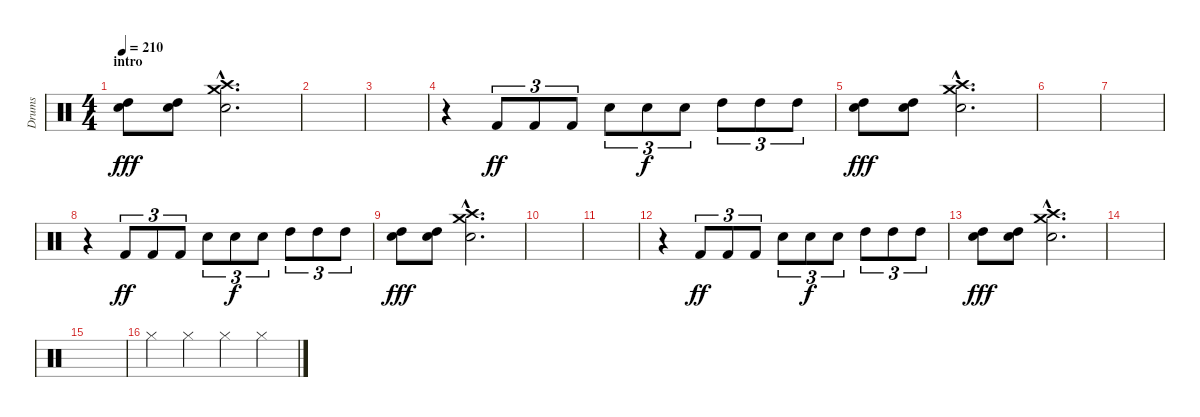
\track ("Drums" "Drums") {instrument percussion}
\staff {score}
\articulation defaults
\ts (4 4)
\section ("" "intro")
\tempo 210
\clef neutral
\ks c
("Electric Snare (hit)" "High Tom (hit)").8{dy fff} ("Electric Snare (hit)" "High Tom (hit)").8 ("Electric Snare (hit)"{hac} "Crash medium (hit)"{hac} "Crash high (hit)"{hac}).2{d} |
|
|
r.4 "Kick (hit) 2".8{tu (3 2) dy ff} "Kick (hit) 2".8{tu (3 2)} "Kick (hit) 2".8{tu (3 2)} "Electric Snare (hit)".8{tu (3 2)} "Electric Snare (hit)".8{tu (3 2) dy f} "Electric Snare (hit)".8{tu (3 2)} "High Tom (hit)".8{tu (3 2)} "High Tom (hit)".8{tu (3 2)} "High Tom (hit)".8{tu (3 2)} |
("Electric Snare (hit)" "High Tom (hit)").8{dy fff} ("Electric Snare (hit)" "High Tom (hit)").8 ("Electric Snare (hit)"{hac} "Crash medium (hit)"{hac} "Crash high (hit)"{hac}).2{d} |
|
|
r.4 "Kick (hit) 2".8{tu (3 2) dy ff} "Kick (hit) 2".8{tu (3 2)} "Kick (hit) 2".8{tu (3 2)} "Electric Snare (hit)".8{tu (3 2)} "Electric Snare (hit)".8{tu (3 2) dy f} "Electric Snare (hit)".8{tu (3 2)} "High Tom (hit)".8{tu (3 2)} "High Tom (hit)".8{tu (3 2)} "High Tom (hit)".8{tu (3 2)} |
("Electric Snare (hit)" "High Tom (hit)").8{dy fff} ("Electric Snare (hit)" "High Tom (hit)").8 ("Electric Snare (hit)"{hac} "Crash medium (hit)"{hac} "Crash high (hit)"{hac}).2{d} |
|
|
r.4 "Kick (hit) 2".8{tu (3 2) dy ff} "Kick (hit) 2".8{tu (3 2)} "Kick (hit) 2".8{tu (3 2)} "Electric Snare (hit)".8{tu (3 2)} "Electric Snare (hit)".8{tu (3 2) dy f} "Electric Snare (hit)".8{tu (3 2)} "High Tom (hit)".8{tu (3 2)} "High Tom (hit)".8{tu (3 2)} "High Tom (hit)".8{tu (3 2)} |
("Electric Snare (hit)" "High Tom (hit)").8{dy fff} ("Electric Snare (hit)" "High Tom (hit)").8 ("Electric Snare (hit)"{hac} "Crash medium (hit)"{hac} "Crash high (hit)"{hac}).2{d} |
|
|
"Hi-Hat (closed)".4 "Hi-Hat (closed)".4 "Hi-Hat (closed)".4 "Hi-Hat (closed)".4
